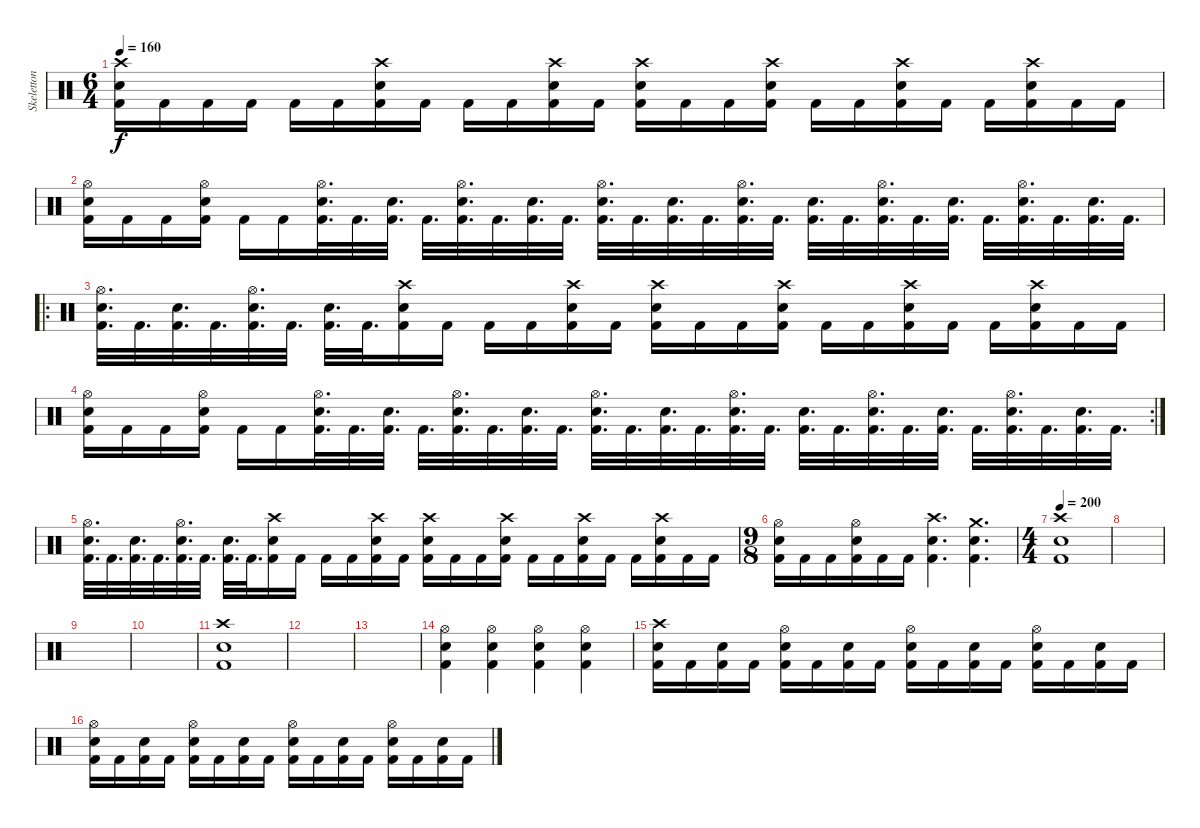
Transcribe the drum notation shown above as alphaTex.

\track ("Skeletton - Drums" "Skeletton ") {instrument percussion}
\staff {score}
\articulation defaults
\ts (6 4)
\tempo 160
\clef neutral
\ks c
("Crash high (hit)" "Electric Snare (hit)" "Kick (hit) 2").16{dy f} "Kick (hit) 2".16 "Kick (hit) 2".16 "Kick (hit) 2".16 "Kick (hit) 2".16 "Kick (hit) 2".16 ("Crash high (hit)" "Electric Snare (hit)" "Kick (hit) 2").16 "Kick (hit) 2".16 "Kick (hit) 2".16 "Kick (hit) 2".16 ("Crash high (hit)" "Electric Snare (hit)" "Kick (hit) 2").16 "Kick (hit) 2".16 ("Crash high (hit)" "Electric Snare (hit)" "Kick (hit) 2").16 "Kick (hit) 2".16 "Kick (hit) 2".16 ("Crash high (hit)" "Electric Snare (hit)" "Kick (hit) 2").16 "Kick (hit) 2".16 "Kick (hit) 2".16 ("Crash high (hit)" "Electric Snare (hit)" "Kick (hit) 2").16 "Kick (hit) 2".16 "Kick (hit) 2".16 ("Crash high (hit)" "Electric Snare (hit)" "Kick (hit) 2").16 "Kick (hit) 2".16 "Kick (hit) 2".16 |
("Hi-Hat (open)" "Electric Snare (hit)" "Kick (hit) 2").16 "Kick (hit) 2".16 "Kick (hit) 2".16 ("Hi-Hat (open)" "Electric Snare (hit)" "Kick (hit) 2").16 "Kick (hit) 2".16 "Kick (hit) 2".16 ("Hi-Hat (open)" "Electric Snare (hit)" "Kick (hit) 2").32{d} "Kick (hit) 2".32{d} ("Electric Snare (hit)" "Kick (hit) 2").32{d} "Kick (hit) 2".32{d} ("Hi-Hat (open)" "Electric Snare (hit)" "Kick (hit) 2").32{d} "Kick (hit) 2".32{d} ("Electric Snare (hit)" "Kick (hit) 2").32{d} "Kick (hit) 2".32{d} ("Hi-Hat (open)" "Electric Snare (hit)" "Kick (hit) 2").32{d} "Kick (hit) 2".32{d} ("Electric Snare (hit)" "Kick (hit) 2").32{d} "Kick (hit) 2".32{d} ("Hi-Hat (open)" "Electric Snare (hit)" "Kick (hit) 2").32{d} "Kick (hit) 2".32{d} ("Electric Snare (hit)" "Kick (hit) 2").32{d} "Kick (hit) 2".32{d} ("Hi-Hat (open)" "Electric Snare (hit)" "Kick (hit) 2").32{d} "Kick (hit) 2".32{d} ("Electric Snare (hit)" "Kick (hit) 2").32{d} "Kick (hit) 2".32{d} ("Hi-Hat (open)" "Electric Snare (hit)" "Kick (hit) 2").32{d} "Kick (hit) 2".32{d} ("Electric Snare (hit)" "Kick (hit) 2").32{d} "Kick (hit) 2".32{d} |
\ro
("Hi-Hat (open)" "Electric Snare (hit)" "Kick (hit) 2").32{d} "Kick (hit) 2".32{d} ("Electric Snare (hit)" "Kick (hit) 2").32{d} "Kick (hit) 2".32{d} ("Hi-Hat (open)" "Electric Snare (hit)" "Kick (hit) 2").32{d} "Kick (hit) 2".32{d} ("Electric Snare (hit)" "Kick (hit) 2").32{d} "Kick (hit) 2".32{d} ("Crash high (hit)" "Electric Snare (hit)" "Kick (hit) 2").16 "Kick (hit) 2".16 "Kick (hit) 2".16 "Kick (hit) 2".16 ("Crash high (hit)" "Electric Snare (hit)" "Kick (hit) 2").16 "Kick (hit) 2".16 ("Crash high (hit)" "Electric Snare (hit)" "Kick (hit) 2").16 "Kick (hit) 2".16 "Kick (hit) 2".16 ("Crash high (hit)" "Electric Snare (hit)" "Kick (hit) 2").16 "Kick (hit) 2".16 "Kick (hit) 2".16 ("Crash high (hit)" "Electric Snare (hit)" "Kick (hit) 2").16 "Kick (hit) 2".16 "Kick (hit) 2".16 ("Crash high (hit)" "Electric Snare (hit)" "Kick (hit) 2").16 "Kick (hit) 2".16 "Kick (hit) 2".16 |
\rc 2
("Hi-Hat (open)" "Electric Snare (hit)" "Kick (hit) 2").16 "Kick (hit) 2".16 "Kick (hit) 2".16 ("Hi-Hat (open)" "Electric Snare (hit)" "Kick (hit) 2").16 "Kick (hit) 2".16 "Kick (hit) 2".16 ("Hi-Hat (open)" "Electric Snare (hit)" "Kick (hit) 2").32{d} "Kick (hit) 2".32{d} ("Electric Snare (hit)" "Kick (hit) 2").32{d} "Kick (hit) 2".32{d} ("Hi-Hat (open)" "Electric Snare (hit)" "Kick (hit) 2").32{d} "Kick (hit) 2".32{d} ("Electric Snare (hit)" "Kick (hit) 2").32{d} "Kick (hit) 2".32{d} ("Hi-Hat (open)" "Electric Snare (hit)" "Kick (hit) 2").32{d} "Kick (hit) 2".32{d} ("Electric Snare (hit)" "Kick (hit) 2").32{d} "Kick (hit) 2".32{d} ("Hi-Hat (open)" "Electric Snare (hit)" "Kick (hit) 2").32{d} "Kick (hit) 2".32{d} ("Electric Snare (hit)" "Kick (hit) 2").32{d} "Kick (hit) 2".32{d} ("Hi-Hat (open)" "Electric Snare (hit)" "Kick (hit) 2").32{d} "Kick (hit) 2".32{d} ("Electric Snare (hit)" "Kick (hit) 2").32{d} "Kick (hit) 2".32{d} ("Hi-Hat (open)" "Electric Snare (hit)" "Kick (hit) 2").32{d} "Kick (hit) 2".32{d} ("Electric Snare (hit)" "Kick (hit) 2").32{d} "Kick (hit) 2".32{d} |
("Hi-Hat (open)" "Electric Snare (hit)" "Kick (hit) 2").32{d} "Kick (hit) 2".32{d} ("Electric Snare (hit)" "Kick (hit) 2").32{d} "Kick (hit) 2".32{d} ("Hi-Hat (open)" "Electric Snare (hit)" "Kick (hit) 2").32{d} "Kick (hit) 2".32{d} ("Electric Snare (hit)" "Kick (hit) 2").32{d} "Kick (hit) 2".32{d} ("Crash high (hit)" "Electric Snare (hit)" "Kick (hit) 2").16 "Kick (hit) 2".16 "Kick (hit) 2".16 "Kick (hit) 2".16 ("Crash high (hit)" "Electric Snare (hit)" "Kick (hit) 2").16 "Kick (hit) 2".16 ("Crash high (hit)" "Electric Snare (hit)" "Kick (hit) 2").16 "Kick (hit) 2".16 "Kick (hit) 2".16 ("Crash high (hit)" "Electric Snare (hit)" "Kick (hit) 2").16 "Kick (hit) 2".16 "Kick (hit) 2".16 ("Crash high (hit)" "Electric Snare (hit)" "Kick (hit) 2").16 "Kick (hit) 2".16 "Kick (hit) 2".16 ("Crash high (hit)" "Electric Snare (hit)" "Kick (hit) 2").16 "Kick (hit) 2".16 "Kick (hit) 2".16 |
\ts (9 8)
("Hi-Hat (open)" "Electric Snare (hit)" "Kick (hit) 2").16 "Kick (hit) 2".16 "Kick (hit) 2".16 ("Hi-Hat (open)" "Electric Snare (hit)" "Kick (hit) 2").16 "Kick (hit) 2".16 "Kick (hit) 2".16 ("Crash high (hit)" "Electric Snare (hit)" "Kick (hit) 2").4{d} ("Crash medium (hit)" "Electric Snare (hit)" "Kick (hit) 2").4{d} |
\ts (4 4)
\tempo 200
("Crash high (hit)" "Electric Snare (hit)" "Kick (hit) 2").1 |
|
|
|
("Crash high (hit)" "Electric Snare (hit)" "Kick (hit) 2").1 |
|
|
("Hi-Hat (open)" "Electric Snare (hit)" "Kick (hit) 2").4 ("Hi-Hat (open)" "Electric Snare (hit)" "Kick (hit) 2").4 ("Hi-Hat (open)" "Electric Snare (hit)" "Kick (hit) 2").4 ("Hi-Hat (open)" "Electric Snare (hit)" "Kick (hit) 2").4 |
("Crash high (hit)" "Electric Snare (hit)" "Kick (hit) 2").16 "Kick (hit) 2".16 ("Electric Snare (hit)" "Kick (hit) 2").16 "Kick (hit) 2".16 ("Hi-Hat (open)" "Electric Snare (hit)" "Kick (hit) 2").16 "Kick (hit) 2".16 ("Electric Snare (hit)" "Kick (hit) 2").16 "Kick (hit) 2".16 ("Hi-Hat (open)" "Electric Snare (hit)" "Kick (hit) 2").16 "Kick (hit) 2".16 ("Electric Snare (hit)" "Kick (hit) 2").16 "Kick (hit) 2".16 ("Hi-Hat (open)" "Electric Snare (hit)" "Kick (hit) 2").16 "Kick (hit) 2".16 ("Electric Snare (hit)" "Kick (hit) 2").16 "Kick (hit) 2".16 |
("Hi-Hat (open)" "Electric Snare (hit)" "Kick (hit) 2").16 "Kick (hit) 2".16 ("Electric Snare (hit)" "Kick (hit) 2").16 "Kick (hit) 2".16 ("Hi-Hat (open)" "Electric Snare (hit)" "Kick (hit) 2").16 "Kick (hit) 2".16 ("Electric Snare (hit)" "Kick (hit) 2").16 "Kick (hit) 2".16 ("Hi-Hat (open)" "Electric Snare (hit)" "Kick (hit) 2").16 "Kick (hit) 2".16 ("Electric Snare (hit)" "Kick (hit) 2").16 "Kick (hit) 2".16 ("Hi-Hat (open)" "Electric Snare (hit)" "Kick (hit) 2").16 "Kick (hit) 2".16 ("Electric Snare (hit)" "Kick (hit) 2").16 "Kick (hit) 2".16
